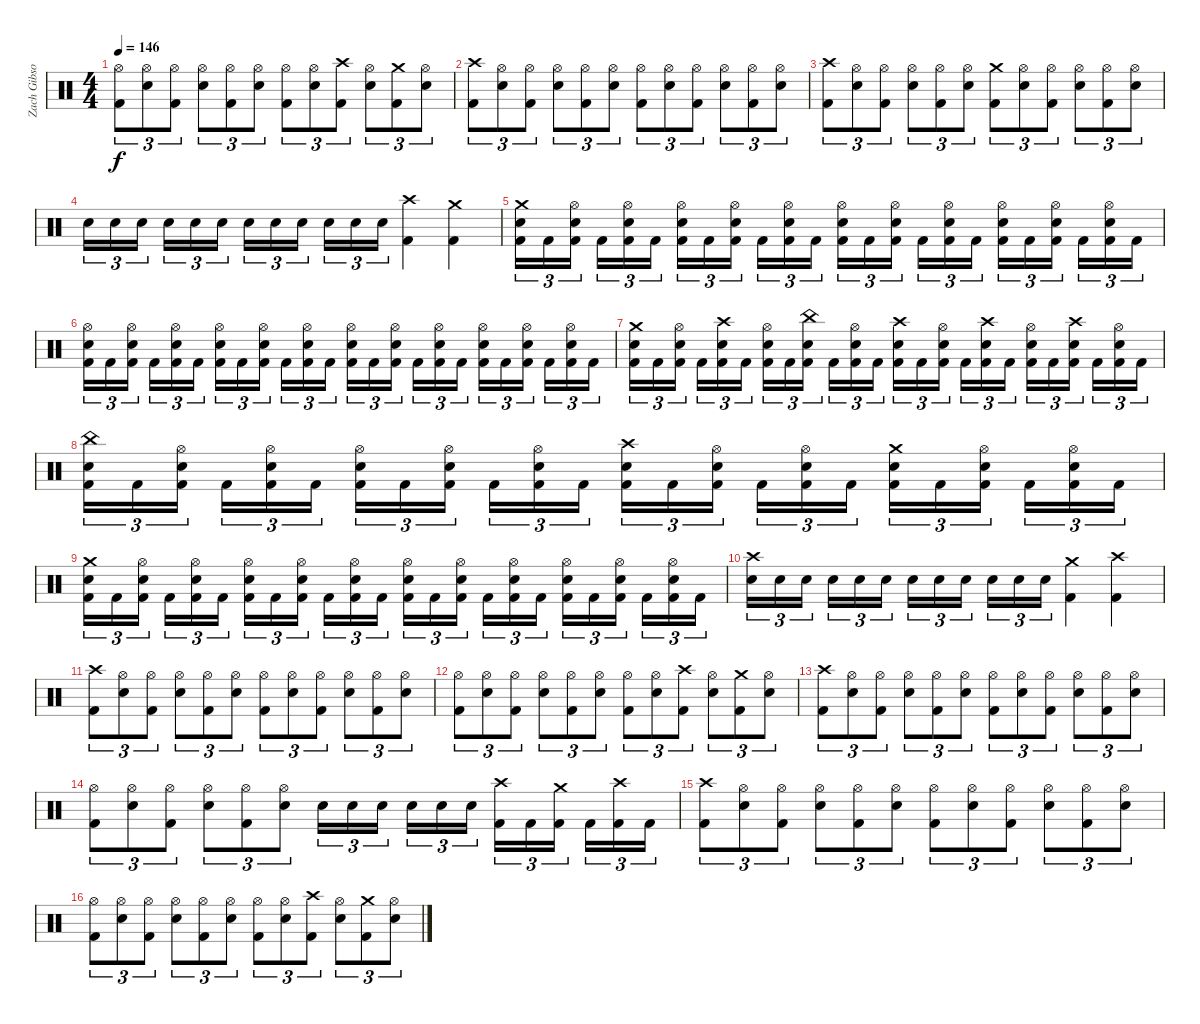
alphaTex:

\track ("Zach Gibson (Drums)" "Zach Gibso") {instrument percussion}
\staff {score}
\articulation defaults
\ts (4 4)
\tempo 146
\clef neutral
\ks c
("Hi-Hat (open)" "Kick (hit) 2").8{tu (3 2) dy f} ("Hi-Hat (open)" "Snare (hit) 2").8{tu (3 2)} ("Hi-Hat (open)" "Kick (hit) 2").8{tu (3 2)} ("Hi-Hat (open)" "Snare (hit) 2").8{tu (3 2)} ("Hi-Hat (open)" "Kick (hit) 2").8{tu (3 2)} ("Hi-Hat (open)" "Snare (hit) 2").8{tu (3 2)} ("Hi-Hat (open)" "Kick (hit) 2").8{tu (3 2)} ("Hi-Hat (open)" "Snare (hit) 2").8{tu (3 2)} ("Crash high (hit)" "Kick (hit) 2").8{tu (3 2)} ("Hi-Hat (open)" "Snare (hit) 2").8{tu (3 2)} ("Crash medium (hit)" "Kick (hit) 2").8{tu (3 2)} ("Hi-Hat (open)" "Snare (hit) 2").8{tu (3 2)} |
("Crash high (hit)" "Kick (hit) 2").8{tu (3 2)} ("Hi-Hat (open)" "Snare (hit) 2").8{tu (3 2)} ("Hi-Hat (open)" "Kick (hit) 2").8{tu (3 2)} ("Hi-Hat (open)" "Snare (hit) 2").8{tu (3 2)} ("Hi-Hat (open)" "Kick (hit) 2").8{tu (3 2)} ("Hi-Hat (open)" "Snare (hit) 2").8{tu (3 2)} ("Hi-Hat (open)" "Kick (hit) 2").8{tu (3 2)} ("Hi-Hat (open)" "Snare (hit) 2").8{tu (3 2)} ("Hi-Hat (open)" "Kick (hit) 2").8{tu (3 2)} ("Hi-Hat (open)" "Snare (hit) 2").8{tu (3 2)} ("Hi-Hat (open)" "Kick (hit) 2").8{tu (3 2)} ("Hi-Hat (open)" "Snare (hit) 2").8{tu (3 2)} |
("Crash high (hit)" "Kick (hit) 2").8{tu (3 2)} ("Hi-Hat (open)" "Snare (hit) 2").8{tu (3 2)} ("Hi-Hat (open)" "Kick (hit) 2").8{tu (3 2)} ("Hi-Hat (open)" "Snare (hit) 2").8{tu (3 2)} ("Hi-Hat (open)" "Kick (hit) 2").8{tu (3 2)} ("Hi-Hat (open)" "Snare (hit) 2").8{tu (3 2)} ("Crash medium (hit)" "Kick (hit) 2").8{tu (3 2)} ("Hi-Hat (open)" "Snare (hit) 2").8{tu (3 2)} ("Hi-Hat (open)" "Kick (hit) 2").8{tu (3 2)} ("Hi-Hat (open)" "Snare (hit) 2").8{tu (3 2)} ("Hi-Hat (open)" "Kick (hit) 2").8{tu (3 2)} ("Hi-Hat (open)" "Snare (hit) 2").8{tu (3 2)} |
"Snare (hit) 2".16{tu (3 2)} "Snare (hit) 2".16{tu (3 2)} "Snare (hit) 2".16{tu (3 2)} "Snare (hit) 2".16{tu (3 2)} "Snare (hit) 2".16{tu (3 2)} "Snare (hit) 2".16{tu (3 2)} "Snare (hit) 2".16{tu (3 2)} "Snare (hit) 2".16{tu (3 2)} "Snare (hit) 2".16{tu (3 2)} "Snare (hit) 2".16{tu (3 2)} "Snare (hit) 2".16{tu (3 2)} "Snare (hit) 2".16{tu (3 2)} ("Crash high (hit)" "Kick (hit) 2").4 ("Crash medium (hit)" "Kick (hit) 2").4 |
("Crash medium (hit)" "Snare (hit) 2" "Kick (hit) 2").16{tu (3 2)} "Kick (hit) 2".16{tu (3 2)} ("Hi-Hat (open)" "Snare (hit) 2" "Kick (hit) 2").16{tu (3 2)} "Kick (hit) 2".16{tu (3 2)} ("Hi-Hat (open)" "Snare (hit) 2" "Kick (hit) 2").16{tu (3 2)} "Kick (hit) 2".16{tu (3 2)} ("Hi-Hat (open)" "Snare (hit) 2" "Kick (hit) 2").16{tu (3 2)} "Kick (hit) 2".16{tu (3 2)} ("Hi-Hat (open)" "Snare (hit) 2" "Kick (hit) 2").16{tu (3 2)} "Kick (hit) 2".16{tu (3 2)} ("Hi-Hat (open)" "Snare (hit) 2" "Kick (hit) 2").16{tu (3 2)} "Kick (hit) 2".16{tu (3 2)} ("Hi-Hat (open)" "Snare (hit) 2" "Kick (hit) 2").16{tu (3 2)} "Kick (hit) 2".16{tu (3 2)} ("Hi-Hat (open)" "Snare (hit) 2" "Kick (hit) 2").16{tu (3 2)} "Kick (hit) 2".16{tu (3 2)} ("Hi-Hat (open)" "Snare (hit) 2" "Kick (hit) 2").16{tu (3 2)} "Kick (hit) 2".16{tu (3 2)} ("Hi-Hat (open)" "Snare (hit) 2" "Kick (hit) 2").16{tu (3 2)} "Kick (hit) 2".16{tu (3 2)} ("Hi-Hat (open)" "Snare (hit) 2" "Kick (hit) 2").16{tu (3 2)} "Kick (hit) 2".16{tu (3 2)} ("Hi-Hat (open)" "Snare (hit) 2" "Kick (hit) 2").16{tu (3 2)} "Kick (hit) 2".16{tu (3 2)} |
("Hi-Hat (open)" "Snare (hit) 2" "Kick (hit) 2").16{tu (3 2)} "Kick (hit) 2".16{tu (3 2)} ("Hi-Hat (open)" "Snare (hit) 2" "Kick (hit) 2").16{tu (3 2)} "Kick (hit) 2".16{tu (3 2)} ("Hi-Hat (open)" "Snare (hit) 2" "Kick (hit) 2").16{tu (3 2)} "Kick (hit) 2".16{tu (3 2)} ("Hi-Hat (open)" "Snare (hit) 2" "Kick (hit) 2").16{tu (3 2)} "Kick (hit) 2".16{tu (3 2)} ("Hi-Hat (open)" "Snare (hit) 2" "Kick (hit) 2").16{tu (3 2)} "Kick (hit) 2".16{tu (3 2)} ("Hi-Hat (open)" "Snare (hit) 2" "Kick (hit) 2").16{tu (3 2)} "Kick (hit) 2".16{tu (3 2)} ("Hi-Hat (open)" "Snare (hit) 2" "Kick (hit) 2").16{tu (3 2)} "Kick (hit) 2".16{tu (3 2)} ("Hi-Hat (open)" "Snare (hit) 2" "Kick (hit) 2").16{tu (3 2)} "Kick (hit) 2".16{tu (3 2)} ("Hi-Hat (open)" "Snare (hit) 2" "Kick (hit) 2").16{tu (3 2)} "Kick (hit) 2".16{tu (3 2)} ("Hi-Hat (open)" "Snare (hit) 2" "Kick (hit) 2").16{tu (3 2)} "Kick (hit) 2".16{tu (3 2)} ("Hi-Hat (open)" "Snare (hit) 2" "Kick (hit) 2").16{tu (3 2)} "Kick (hit) 2".16{tu (3 2)} ("Hi-Hat (open)" "Snare (hit) 2" "Kick (hit) 2").16{tu (3 2)} "Kick (hit) 2".16{tu (3 2)} |
("Crash medium (hit)" "Snare (hit) 2" "Kick (hit) 2").16{tu (3 2)} "Kick (hit) 2".16{tu (3 2)} ("Hi-Hat (open)" "Snare (hit) 2" "Kick (hit) 2").16{tu (3 2)} "Kick (hit) 2".16{tu (3 2)} ("Crash high (hit)" "Snare (hit) 2" "Kick (hit) 2").16{tu (3 2)} "Kick (hit) 2".16{tu (3 2)} ("Hi-Hat (open)" "Snare (hit) 2" "Kick (hit) 2").16{tu (3 2)} "Kick (hit) 2".16{tu (3 2)} ("China (hit)" "Snare (hit) 2" "Kick (hit) 2").16{tu (3 2)} "Kick (hit) 2".16{tu (3 2)} ("Hi-Hat (open)" "Snare (hit) 2" "Kick (hit) 2").16{tu (3 2)} "Kick (hit) 2".16{tu (3 2)} ("Crash high (hit)" "Snare (hit) 2" "Kick (hit) 2").16{tu (3 2)} "Kick (hit) 2".16{tu (3 2)} ("Hi-Hat (open)" "Snare (hit) 2" "Kick (hit) 2").16{tu (3 2)} "Kick (hit) 2".16{tu (3 2)} ("Crash high (hit)" "Snare (hit) 2" "Kick (hit) 2").16{tu (3 2)} "Kick (hit) 2".16{tu (3 2)} ("Hi-Hat (open)" "Snare (hit) 2" "Kick (hit) 2").16{tu (3 2)} "Kick (hit) 2".16{tu (3 2)} ("Crash high (hit)" "Snare (hit) 2" "Kick (hit) 2").16{tu (3 2)} "Kick (hit) 2".16{tu (3 2)} ("Hi-Hat (open)" "Snare (hit) 2" "Kick (hit) 2").16{tu (3 2)} "Kick (hit) 2".16{tu (3 2)} |
("China (hit)" "Snare (hit) 2" "Kick (hit) 2").16{tu (3 2)} "Kick (hit) 2".16{tu (3 2)} ("Hi-Hat (open)" "Snare (hit) 2" "Kick (hit) 2").16{tu (3 2)} "Kick (hit) 2".16{tu (3 2)} ("Hi-Hat (open)" "Snare (hit) 2" "Kick (hit) 2").16{tu (3 2)} "Kick (hit) 2".16{tu (3 2)} ("Hi-Hat (open)" "Snare (hit) 2" "Kick (hit) 2").16{tu (3 2)} "Kick (hit) 2".16{tu (3 2)} ("Hi-Hat (open)" "Snare (hit) 2" "Kick (hit) 2").16{tu (3 2)} "Kick (hit) 2".16{tu (3 2)} ("Hi-Hat (open)" "Snare (hit) 2" "Kick (hit) 2").16{tu (3 2)} "Kick (hit) 2".16{tu (3 2)} ("Crash high (hit)" "Snare (hit) 2" "Kick (hit) 2").16{tu (3 2)} "Kick (hit) 2".16{tu (3 2)} ("Hi-Hat (open)" "Snare (hit) 2" "Kick (hit) 2").16{tu (3 2)} "Kick (hit) 2".16{tu (3 2)} ("Hi-Hat (open)" "Snare (hit) 2" "Kick (hit) 2").16{tu (3 2)} "Kick (hit) 2".16{tu (3 2)} ("Crash medium (hit)" "Snare (hit) 2" "Kick (hit) 2").16{tu (3 2)} "Kick (hit) 2".16{tu (3 2)} ("Hi-Hat (open)" "Snare (hit) 2" "Kick (hit) 2").16{tu (3 2)} "Kick (hit) 2".16{tu (3 2)} ("Hi-Hat (open)" "Snare (hit) 2" "Kick (hit) 2").16{tu (3 2)} "Kick (hit) 2".16{tu (3 2)} |
("Crash medium (hit)" "Snare (hit) 2" "Kick (hit) 2").16{tu (3 2)} "Kick (hit) 2".16{tu (3 2)} ("Hi-Hat (open)" "Snare (hit) 2" "Kick (hit) 2").16{tu (3 2)} "Kick (hit) 2".16{tu (3 2)} ("Hi-Hat (open)" "Snare (hit) 2" "Kick (hit) 2").16{tu (3 2)} "Kick (hit) 2".16{tu (3 2)} ("Hi-Hat (open)" "Snare (hit) 2" "Kick (hit) 2").16{tu (3 2)} "Kick (hit) 2".16{tu (3 2)} ("Hi-Hat (open)" "Snare (hit) 2" "Kick (hit) 2").16{tu (3 2)} "Kick (hit) 2".16{tu (3 2)} ("Hi-Hat (open)" "Snare (hit) 2" "Kick (hit) 2").16{tu (3 2)} "Kick (hit) 2".16{tu (3 2)} ("Hi-Hat (open)" "Snare (hit) 2" "Kick (hit) 2").16{tu (3 2)} "Kick (hit) 2".16{tu (3 2)} ("Hi-Hat (open)" "Snare (hit) 2" "Kick (hit) 2").16{tu (3 2)} "Kick (hit) 2".16{tu (3 2)} ("Hi-Hat (open)" "Snare (hit) 2" "Kick (hit) 2").16{tu (3 2)} "Kick (hit) 2".16{tu (3 2)} ("Hi-Hat (open)" "Snare (hit) 2" "Kick (hit) 2").16{tu (3 2)} "Kick (hit) 2".16{tu (3 2)} ("Hi-Hat (open)" "Snare (hit) 2" "Kick (hit) 2").16{tu (3 2)} "Kick (hit) 2".16{tu (3 2)} ("Hi-Hat (open)" "Snare (hit) 2" "Kick (hit) 2").16{tu (3 2)} "Kick (hit) 2".16{tu (3 2)} |
("Crash high (hit)" "Snare (hit) 2").16{tu (3 2)} "Snare (hit) 2".16{tu (3 2)} "Snare (hit) 2".16{tu (3 2)} "Snare (hit) 2".16{tu (3 2)} "Snare (hit) 2".16{tu (3 2)} "Snare (hit) 2".16{tu (3 2)} "Snare (hit) 2".16{tu (3 2)} "Snare (hit) 2".16{tu (3 2)} "Snare (hit) 2".16{tu (3 2)} "Snare (hit) 2".16{tu (3 2)} "Snare (hit) 2".16{tu (3 2)} "Snare (hit) 2".16{tu (3 2)} ("Crash medium (hit)" "Kick (hit) 2").4 ("Crash high (hit)" "Kick (hit) 2").4 |
("Crash high (hit)" "Kick (hit) 2").8{tu (3 2)} ("Hi-Hat (open)" "Snare (hit) 2").8{tu (3 2)} ("Hi-Hat (open)" "Kick (hit) 2").8{tu (3 2)} ("Hi-Hat (open)" "Snare (hit) 2").8{tu (3 2)} ("Hi-Hat (open)" "Kick (hit) 2").8{tu (3 2)} ("Hi-Hat (open)" "Snare (hit) 2").8{tu (3 2)} ("Hi-Hat (open)" "Kick (hit) 2").8{tu (3 2)} ("Hi-Hat (open)" "Snare (hit) 2").8{tu (3 2)} ("Hi-Hat (open)" "Kick (hit) 2").8{tu (3 2)} ("Hi-Hat (open)" "Snare (hit) 2").8{tu (3 2)} ("Hi-Hat (open)" "Kick (hit) 2").8{tu (3 2)} ("Hi-Hat (open)" "Snare (hit) 2").8{tu (3 2)} |
("Hi-Hat (open)" "Kick (hit) 2").8{tu (3 2)} ("Hi-Hat (open)" "Snare (hit) 2").8{tu (3 2)} ("Hi-Hat (open)" "Kick (hit) 2").8{tu (3 2)} ("Hi-Hat (open)" "Snare (hit) 2").8{tu (3 2)} ("Hi-Hat (open)" "Kick (hit) 2").8{tu (3 2)} ("Hi-Hat (open)" "Snare (hit) 2").8{tu (3 2)} ("Hi-Hat (open)" "Kick (hit) 2").8{tu (3 2)} ("Hi-Hat (open)" "Snare (hit) 2").8{tu (3 2)} ("Crash high (hit)" "Kick (hit) 2").8{tu (3 2)} ("Hi-Hat (open)" "Snare (hit) 2").8{tu (3 2)} ("Crash medium (hit)" "Kick (hit) 2").8{tu (3 2)} ("Hi-Hat (open)" "Snare (hit) 2").8{tu (3 2)} |
("Crash high (hit)" "Kick (hit) 2").8{tu (3 2)} ("Hi-Hat (open)" "Snare (hit) 2").8{tu (3 2)} ("Hi-Hat (open)" "Kick (hit) 2").8{tu (3 2)} ("Hi-Hat (open)" "Snare (hit) 2").8{tu (3 2)} ("Hi-Hat (open)" "Kick (hit) 2").8{tu (3 2)} ("Hi-Hat (open)" "Snare (hit) 2").8{tu (3 2)} ("Hi-Hat (open)" "Kick (hit) 2").8{tu (3 2)} ("Hi-Hat (open)" "Snare (hit) 2").8{tu (3 2)} ("Hi-Hat (open)" "Kick (hit) 2").8{tu (3 2)} ("Hi-Hat (open)" "Snare (hit) 2").8{tu (3 2)} ("Hi-Hat (open)" "Kick (hit) 2").8{tu (3 2)} ("Hi-Hat (open)" "Snare (hit) 2").8{tu (3 2)} |
("Hi-Hat (open)" "Kick (hit) 2").8{tu (3 2)} ("Hi-Hat (open)" "Snare (hit) 2").8{tu (3 2)} ("Hi-Hat (open)" "Kick (hit) 2").8{tu (3 2)} ("Hi-Hat (open)" "Snare (hit) 2").8{tu (3 2)} ("Hi-Hat (open)" "Kick (hit) 2").8{tu (3 2)} ("Hi-Hat (open)" "Snare (hit) 2").8{tu (3 2)} "Snare (hit) 2".16{tu (3 2)} "Snare (hit) 2".16{tu (3 2)} "Snare (hit) 2".16{tu (3 2)} "Snare (hit) 2".16{tu (3 2)} "Snare (hit) 2".16{tu (3 2)} "Snare (hit) 2".16{tu (3 2)} ("Crash high (hit)" "Kick (hit) 2").16{tu (3 2)} "Kick (hit) 2".16{tu (3 2)} ("Crash medium (hit)" "Kick (hit) 2").16{tu (3 2)} "Kick (hit) 2".16{tu (3 2)} ("Crash high (hit)" "Kick (hit) 2").16{tu (3 2)} "Kick (hit) 2".16{tu (3 2)} |
("Crash high (hit)" "Kick (hit) 2").8{tu (3 2)} ("Hi-Hat (open)" "Snare (hit) 2").8{tu (3 2)} ("Hi-Hat (open)" "Kick (hit) 2").8{tu (3 2)} ("Hi-Hat (open)" "Snare (hit) 2").8{tu (3 2)} ("Hi-Hat (open)" "Kick (hit) 2").8{tu (3 2)} ("Hi-Hat (open)" "Snare (hit) 2").8{tu (3 2)} ("Hi-Hat (open)" "Kick (hit) 2").8{tu (3 2)} ("Hi-Hat (open)" "Snare (hit) 2").8{tu (3 2)} ("Hi-Hat (open)" "Kick (hit) 2").8{tu (3 2)} ("Hi-Hat (open)" "Snare (hit) 2").8{tu (3 2)} ("Hi-Hat (open)" "Kick (hit) 2").8{tu (3 2)} ("Hi-Hat (open)" "Snare (hit) 2").8{tu (3 2)} |
("Hi-Hat (open)" "Kick (hit) 2").8{tu (3 2)} ("Hi-Hat (open)" "Snare (hit) 2").8{tu (3 2)} ("Hi-Hat (open)" "Kick (hit) 2").8{tu (3 2)} ("Hi-Hat (open)" "Snare (hit) 2").8{tu (3 2)} ("Hi-Hat (open)" "Kick (hit) 2").8{tu (3 2)} ("Hi-Hat (open)" "Snare (hit) 2").8{tu (3 2)} ("Hi-Hat (open)" "Kick (hit) 2").8{tu (3 2)} ("Hi-Hat (open)" "Snare (hit) 2").8{tu (3 2)} ("Crash high (hit)" "Kick (hit) 2").8{tu (3 2)} ("Hi-Hat (open)" "Snare (hit) 2").8{tu (3 2)} ("Crash medium (hit)" "Kick (hit) 2").8{tu (3 2)} ("Hi-Hat (open)" "Snare (hit) 2").8{tu (3 2)}
